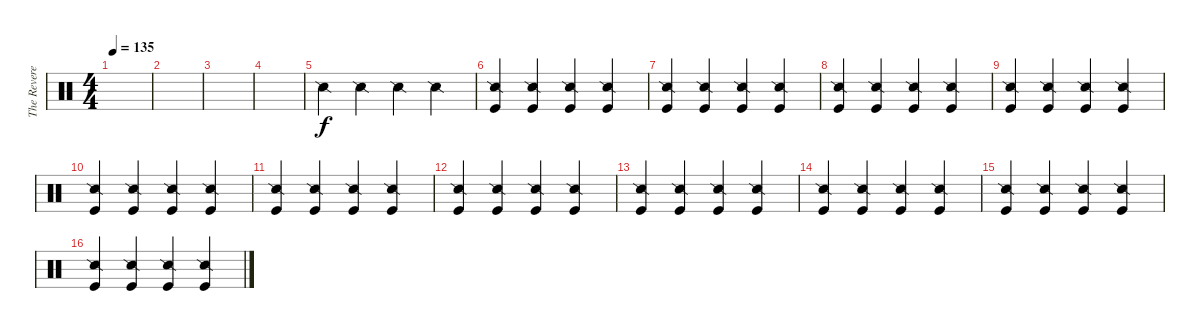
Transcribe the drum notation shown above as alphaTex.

\track ("The Reverend" "The Revere") {instrument percussion}
\staff {score}
\articulation defaults
\ts (4 4)
\tempo 135
\clef neutral
\ks c
|
|
|
|
"Snare (side stick) 2".4 "Snare (side stick) 2".4 "Snare (side stick) 2".4 "Snare (side stick) 2".4 |
("Snare (side stick) 2" "Kick (hit)").4 ("Snare (side stick) 2" "Kick (hit)").4 ("Snare (side stick) 2" "Kick (hit)").4 ("Snare (side stick) 2" "Kick (hit)").4 |
("Snare (side stick) 2" "Kick (hit)").4 ("Snare (side stick) 2" "Kick (hit)").4 ("Snare (side stick) 2" "Kick (hit)").4 ("Snare (side stick) 2" "Kick (hit)").4 |
("Snare (side stick) 2" "Kick (hit)").4 ("Snare (side stick) 2" "Kick (hit)").4 ("Snare (side stick) 2" "Kick (hit)").4 ("Snare (side stick) 2" "Kick (hit)").4 |
("Snare (side stick) 2" "Kick (hit)").4 ("Snare (side stick) 2" "Kick (hit)").4 ("Snare (side stick) 2" "Kick (hit)").4 ("Snare (side stick) 2" "Kick (hit)").4 |
("Snare (side stick) 2" "Kick (hit)").4 ("Snare (side stick) 2" "Kick (hit)").4 ("Snare (side stick) 2" "Kick (hit)").4 ("Snare (side stick) 2" "Kick (hit)").4 |
("Snare (side stick) 2" "Kick (hit)").4 ("Snare (side stick) 2" "Kick (hit)").4 ("Snare (side stick) 2" "Kick (hit)").4 ("Snare (side stick) 2" "Kick (hit)").4 |
("Snare (side stick) 2" "Kick (hit)").4 ("Snare (side stick) 2" "Kick (hit)").4 ("Snare (side stick) 2" "Kick (hit)").4 ("Snare (side stick) 2" "Kick (hit)").4 |
("Snare (side stick) 2" "Kick (hit)").4 ("Snare (side stick) 2" "Kick (hit)").4 ("Snare (side stick) 2" "Kick (hit)").4 ("Snare (side stick) 2" "Kick (hit)").4 |
("Snare (side stick) 2" "Kick (hit)").4 ("Snare (side stick) 2" "Kick (hit)").4 ("Snare (side stick) 2" "Kick (hit)").4 ("Snare (side stick) 2" "Kick (hit)").4 |
("Snare (side stick) 2" "Kick (hit)").4 ("Snare (side stick) 2" "Kick (hit)").4 ("Snare (side stick) 2" "Kick (hit)").4 ("Snare (side stick) 2" "Kick (hit)").4 |
("Snare (side stick) 2" "Kick (hit)").4 ("Snare (side stick) 2" "Kick (hit)").4 ("Snare (side stick) 2" "Kick (hit)").4 ("Snare (side stick) 2" "Kick (hit)").4
